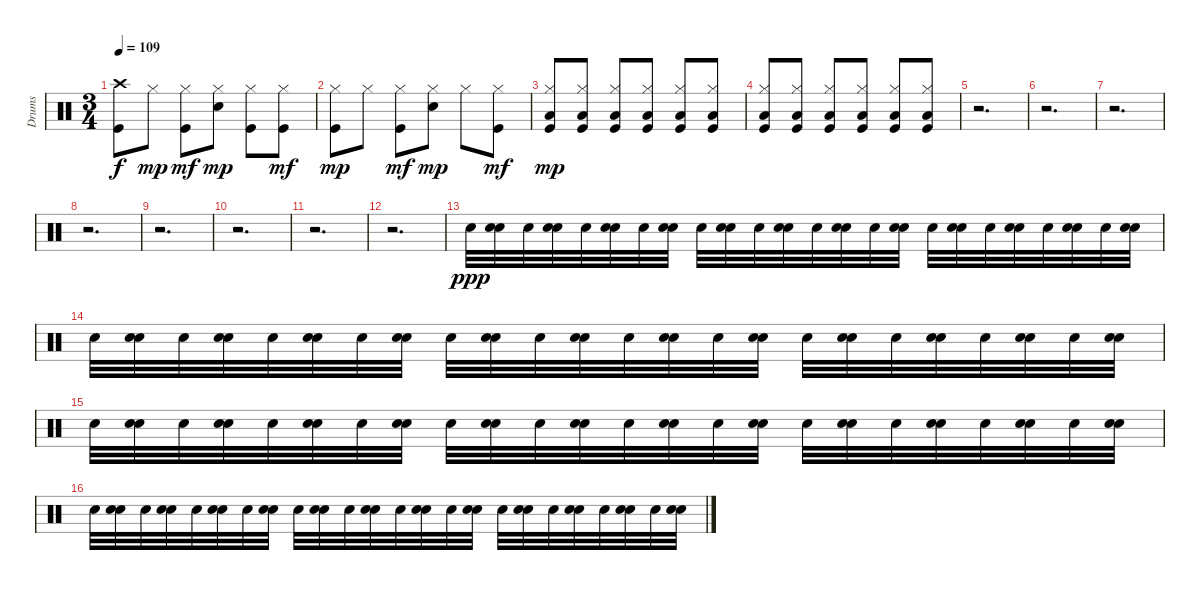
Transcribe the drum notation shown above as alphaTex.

\track ("Drums" "Drums") {instrument percussion}
\staff {score}
\articulation defaults
\ts (3 4)
\tempo 109
\clef neutral
\ks c
("Crash high (hit)" "Kick (hit)").8{dy f} "Hi-Hat (closed)".8{dy mp} ("Hi-Hat (closed)" "Kick (hit)").8{dy mf} ("Electric Snare (hit)" "Hi-Hat (closed)").8{dy mp} ("Kick (hit)" "Hi-Hat (closed)").8 ("Hi-Hat (closed)" "Kick (hit)").8{dy mf} |
("Hi-Hat (closed)" "Kick (hit)").8{dy mp} "Hi-Hat (closed)".8 ("Hi-Hat (closed)" "Kick (hit)").8{dy mf} ("Hi-Hat (closed)" "Electric Snare (hit)").8{dy mp} "Hi-Hat (closed)".8 ("Hi-Hat (closed)" "Kick (hit)").8{dy mf} |
("Hi-Hat (closed)" "Low Floor Tom (hit)" "Kick (hit)").8{dy mp} ("Hi-Hat (closed)" "Low Floor Tom (hit)" "Kick (hit)").8 ("Hi-Hat (closed)" "Low Floor Tom (hit)" "Kick (hit)").8 ("Hi-Hat (closed)" "Low Floor Tom (hit)" "Kick (hit)").8 ("Hi-Hat (closed)" "Low Floor Tom (hit)" "Kick (hit)").8 ("Hi-Hat (closed)" "Low Floor Tom (hit)" "Kick (hit)").8 |
("Hi-Hat (closed)" "Low Floor Tom (hit)" "Kick (hit)").8 ("Hi-Hat (closed)" "Low Floor Tom (hit)" "Kick (hit)").8 ("Hi-Hat (closed)" "Low Floor Tom (hit)" "Kick (hit)").8 ("Hi-Hat (closed)" "Low Floor Tom (hit)" "Kick (hit)").8 ("Hi-Hat (closed)" "Low Floor Tom (hit)" "Kick (hit)").8 ("Hi-Hat (closed)" "Low Floor Tom (hit)" "Kick (hit)").8 |
r.2{d} |
r.2{d} |
r.2{d} |
r.2{d} |
r.2{d} |
r.2{d} |
r.2{d} |
r.2{d} |
"Snare (hit) 2".32{dy ppp} ("Snare (hit) 2" "Snare (hit) 2").32 "Snare (hit) 2".32 ("Snare (hit) 2" "Snare (hit) 2").32 "Snare (hit) 2".32 ("Snare (hit) 2" "Snare (hit) 2").32 "Snare (hit) 2".32 ("Snare (hit) 2" "Snare (hit) 2").32 "Snare (hit) 2".32 ("Snare (hit) 2" "Snare (hit) 2").32 "Snare (hit) 2".32 ("Snare (hit) 2" "Snare (hit) 2").32 "Snare (hit) 2".32 ("Snare (hit) 2" "Snare (hit) 2").32 "Snare (hit) 2".32 ("Snare (hit) 2" "Snare (hit) 2").32 "Snare (hit) 2".32 ("Snare (hit) 2" "Snare (hit) 2").32 "Snare (hit) 2".32 ("Snare (hit) 2" "Snare (hit) 2").32 "Snare (hit) 2".32 ("Snare (hit) 2" "Snare (hit) 2").32 "Snare (hit) 2".32 ("Snare (hit) 2" "Snare (hit) 2").32 |
"Snare (hit) 2".32 ("Snare (hit) 2" "Snare (hit) 2").32 "Snare (hit) 2".32 ("Snare (hit) 2" "Snare (hit) 2").32 "Snare (hit) 2".32 ("Snare (hit) 2" "Snare (hit) 2").32 "Snare (hit) 2".32 ("Snare (hit) 2" "Snare (hit) 2").32 "Snare (hit) 2".32 ("Snare (hit) 2" "Snare (hit) 2").32 "Snare (hit) 2".32 ("Snare (hit) 2" "Snare (hit) 2").32 "Snare (hit) 2".32 ("Snare (hit) 2" "Snare (hit) 2").32 "Snare (hit) 2".32 ("Snare (hit) 2" "Snare (hit) 2").32 "Snare (hit) 2".32 ("Snare (hit) 2" "Snare (hit) 2").32 "Snare (hit) 2".32 ("Snare (hit) 2" "Snare (hit) 2").32 "Snare (hit) 2".32 ("Snare (hit) 2" "Snare (hit) 2").32 "Snare (hit) 2".32 ("Snare (hit) 2" "Snare (hit) 2").32 |
"Snare (hit) 2".32 ("Snare (hit) 2" "Snare (hit) 2").32 "Snare (hit) 2".32 ("Snare (hit) 2" "Snare (hit) 2").32 "Snare (hit) 2".32 ("Snare (hit) 2" "Snare (hit) 2").32 "Snare (hit) 2".32 ("Snare (hit) 2" "Snare (hit) 2").32 "Snare (hit) 2".32 ("Snare (hit) 2" "Snare (hit) 2").32 "Snare (hit) 2".32 ("Snare (hit) 2" "Snare (hit) 2").32 "Snare (hit) 2".32 ("Snare (hit) 2" "Snare (hit) 2").32 "Snare (hit) 2".32 ("Snare (hit) 2" "Snare (hit) 2").32 "Snare (hit) 2".32 ("Snare (hit) 2" "Snare (hit) 2").32 "Snare (hit) 2".32 ("Snare (hit) 2" "Snare (hit) 2").32 "Snare (hit) 2".32 ("Snare (hit) 2" "Snare (hit) 2").32 "Snare (hit) 2".32 ("Snare (hit) 2" "Snare (hit) 2").32 |
"Snare (hit) 2".32 ("Snare (hit) 2" "Snare (hit) 2").32 "Snare (hit) 2".32 ("Snare (hit) 2" "Snare (hit) 2").32 "Snare (hit) 2".32 ("Snare (hit) 2" "Snare (hit) 2").32 "Snare (hit) 2".32 ("Snare (hit) 2" "Snare (hit) 2").32 "Snare (hit) 2".32 ("Snare (hit) 2" "Snare (hit) 2").32 "Snare (hit) 2".32 ("Snare (hit) 2" "Snare (hit) 2").32 "Snare (hit) 2".32 ("Snare (hit) 2" "Snare (hit) 2").32 "Snare (hit) 2".32 ("Snare (hit) 2" "Snare (hit) 2").32 "Snare (hit) 2".32 ("Snare (hit) 2" "Snare (hit) 2").32 "Snare (hit) 2".32 ("Snare (hit) 2" "Snare (hit) 2").32 "Snare (hit) 2".32 ("Snare (hit) 2" "Snare (hit) 2").32 "Snare (hit) 2".32 ("Snare (hit) 2" "Snare (hit) 2").32
